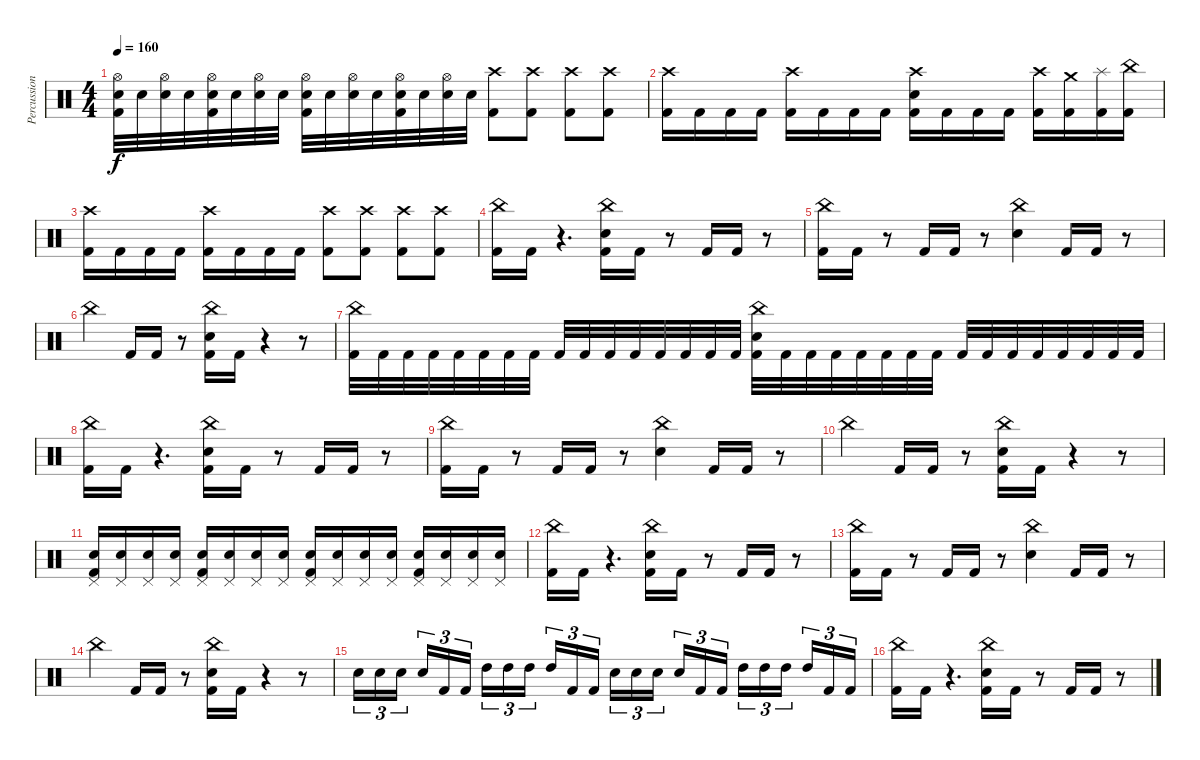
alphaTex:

\track ("Percussion" "Percussion") {instrument percussion}
\staff {score}
\articulation defaults
\ts (4 4)
\tempo 160
\clef neutral
\ks c
("Hi-Hat (open)" "Snare (hit) 2" "Kick (hit) 2").32{dy f} "Snare (hit) 2".32 ("Hi-Hat (open)" "Snare (hit) 2").32 "Snare (hit) 2".32 ("Hi-Hat (open)" "Snare (hit) 2" "Kick (hit) 2").32 "Snare (hit) 2".32 ("Hi-Hat (open)" "Snare (hit) 2").32 "Snare (hit) 2".32 ("Hi-Hat (open)" "Snare (hit) 2" "Kick (hit) 2").32 "Snare (hit) 2".32 ("Hi-Hat (open)" "Snare (hit) 2").32 "Snare (hit) 2".32 ("Hi-Hat (open)" "Snare (hit) 2" "Kick (hit) 2").32 "Snare (hit) 2".32 ("Hi-Hat (open)" "Snare (hit) 2").32 "Snare (hit) 2".32 ("Crash high (hit)" "Kick (hit) 2").8 ("Crash high (hit)" "Kick (hit) 2").8 ("Crash high (hit)" "Kick (hit) 2").8 ("Crash high (hit)" "Kick (hit) 2").8 |
("Kick (hit) 2" "Crash high (hit)").16 "Kick (hit) 2".16 "Kick (hit) 2".16 "Kick (hit) 2".16 ("Kick (hit) 2" "Crash high (hit)").16 "Kick (hit) 2".16 "Kick (hit) 2".16 "Kick (hit) 2".16 ("Kick (hit) 2" "Snare (hit) 2" "Crash high (hit)").16 "Kick (hit) 2".16 "Kick (hit) 2".16 "Kick (hit) 2".16 ("Kick (hit) 2" "Crash high (hit)").16 ("Kick (hit) 2" "Crash medium (hit)").16 ("Kick (hit) 2" "Splash (hit)").16 ("Kick (hit) 2" "China (hit)").16 |
("Kick (hit) 2" "Crash high (hit)").16 "Kick (hit) 2".16 "Kick (hit) 2".16 "Kick (hit) 2".16 ("Kick (hit) 2" "Crash high (hit)").16 "Kick (hit) 2".16 "Kick (hit) 2".16 "Kick (hit) 2".16 ("Crash high (hit)" "Kick (hit) 2").8 ("Crash high (hit)" "Kick (hit) 2").8 ("Crash high (hit)" "Kick (hit) 2").8 ("Crash high (hit)" "Kick (hit) 2").8 |
("China (hit)" "Kick (hit) 2").16 "Kick (hit) 2".16 r.4{d} ("China (hit)" "Snare (hit) 2" "Kick (hit) 2").16 "Kick (hit) 2".16 r.8 "Kick (hit) 2".16 "Kick (hit) 2".16 r.8 |
("China (hit)" "Kick (hit) 2").16 "Kick (hit) 2".16 r.8 "Kick (hit) 2".16 "Kick (hit) 2".16 r.8 ("China (hit)" "Snare (hit) 2").4 "Kick (hit) 2".16 "Kick (hit) 2".16 r.8 |
"China (hit)".4 "Kick (hit) 2".16 "Kick (hit) 2".16 r.8 ("China (hit)" "Snare (hit) 2" "Kick (hit) 2").16 "Kick (hit) 2".16 r.4 r.8 |
("China (hit)" "Kick (hit) 2").32 "Kick (hit) 2".32 "Kick (hit) 2".32 "Kick (hit) 2".32 "Kick (hit) 2".32 "Kick (hit) 2".32 "Kick (hit) 2".32 "Kick (hit) 2".32 "Kick (hit) 2".32 "Kick (hit) 2".32 "Kick (hit) 2".32 "Kick (hit) 2".32 "Kick (hit) 2".32 "Kick (hit) 2".32 "Kick (hit) 2".32 "Kick (hit) 2".32 ("China (hit)" "Snare (hit) 2" "Kick (hit) 2").32 "Kick (hit) 2".32 "Kick (hit) 2".32 "Kick (hit) 2".32 "Kick (hit) 2".32 "Kick (hit) 2".32 "Kick (hit) 2".32 "Kick (hit) 2".32 "Kick (hit) 2".32 "Kick (hit) 2".32 "Kick (hit) 2".32 "Kick (hit) 2".32 "Kick (hit) 2".32 "Kick (hit) 2".32 "Kick (hit) 2".32 "Kick (hit) 2".32 |
("China (hit)" "Kick (hit) 2").16 "Kick (hit) 2".16 r.4{d} ("China (hit)" "Snare (hit) 2" "Kick (hit) 2").16 "Kick (hit) 2".16 r.8 "Kick (hit) 2".16 "Kick (hit) 2".16 r.8 |
("China (hit)" "Kick (hit) 2").16 "Kick (hit) 2".16 r.8 "Kick (hit) 2".16 "Kick (hit) 2".16 r.8 ("China (hit)" "Snare (hit) 2").4 "Kick (hit) 2".16 "Kick (hit) 2".16 r.8 |
"China (hit)".4 "Kick (hit) 2".16 "Kick (hit) 2".16 r.8 ("China (hit)" "Snare (hit) 2" "Kick (hit) 2").16 "Kick (hit) 2".16 r.4 r.8 |
("Pedal Hi-Hat (hit)" "Snare (hit) 2" "Kick (hit) 2").16 ("Pedal Hi-Hat (hit)" "Snare (hit) 2").16 ("Pedal Hi-Hat (hit)" "Snare (hit) 2").16 ("Pedal Hi-Hat (hit)" "Snare (hit) 2").16 ("Pedal Hi-Hat (hit)" "Snare (hit) 2" "Kick (hit) 2").16 ("Pedal Hi-Hat (hit)" "Snare (hit) 2").16 ("Pedal Hi-Hat (hit)" "Snare (hit) 2").16 ("Pedal Hi-Hat (hit)" "Snare (hit) 2").16 ("Pedal Hi-Hat (hit)" "Snare (hit) 2" "Kick (hit) 2").16 ("Pedal Hi-Hat (hit)" "Snare (hit) 2").16 ("Pedal Hi-Hat (hit)" "Snare (hit) 2").16 ("Pedal Hi-Hat (hit)" "Snare (hit) 2").16 ("Pedal Hi-Hat (hit)" "Snare (hit) 2" "Kick (hit) 2").16 ("Pedal Hi-Hat (hit)" "Snare (hit) 2").16 ("Pedal Hi-Hat (hit)" "Snare (hit) 2").16 ("Pedal Hi-Hat (hit)" "Snare (hit) 2").16 |
("China (hit)" "Kick (hit) 2").16 "Kick (hit) 2".16 r.4{d} ("China (hit)" "Snare (hit) 2" "Kick (hit) 2").16 "Kick (hit) 2".16 r.8 "Kick (hit) 2".16 "Kick (hit) 2".16 r.8 |
("China (hit)" "Kick (hit) 2").16 "Kick (hit) 2".16 r.8 "Kick (hit) 2".16 "Kick (hit) 2".16 r.8 ("China (hit)" "Snare (hit) 2").4 "Kick (hit) 2".16 "Kick (hit) 2".16 r.8 |
"China (hit)".4 "Kick (hit) 2".16 "Kick (hit) 2".16 r.8 ("China (hit)" "Snare (hit) 2" "Kick (hit) 2").16 "Kick (hit) 2".16 r.4 r.8 |
"Snare (hit) 2".16{tu (3 2)} "Snare (hit) 2".16{tu (3 2)} "Snare (hit) 2".16{tu (3 2) beam splitsecondary} "Snare (hit) 2".16{tu (3 2)} "Kick (hit) 2".16{tu (3 2)} "Kick (hit) 2".16{tu (3 2)} "High Tom (hit)".16{tu (3 2)} "High Tom (hit)".16{tu (3 2)} "High Tom (hit)".16{tu (3 2) beam splitsecondary} "High Tom (hit)".16{tu (3 2)} "Kick (hit) 2".16{tu (3 2)} "Kick (hit) 2".16{tu (3 2)} "Snare (hit) 2".16{tu (3 2)} "Snare (hit) 2".16{tu (3 2)} "Snare (hit) 2".16{tu (3 2) beam splitsecondary} "Snare (hit) 2".16{tu (3 2)} "Kick (hit) 2".16{tu (3 2)} "Kick (hit) 2".16{tu (3 2)} "High Tom (hit)".16{tu (3 2)} "High Tom (hit)".16{tu (3 2)} "High Tom (hit)".16{tu (3 2) beam splitsecondary} "High Tom (hit)".16{tu (3 2)} "Kick (hit) 2".16{tu (3 2)} "Kick (hit) 2".16{tu (3 2)} |
("China (hit)" "Kick (hit) 2").16 "Kick (hit) 2".16 r.4{d} ("China (hit)" "Snare (hit) 2" "Kick (hit) 2").16 "Kick (hit) 2".16 r.8 "Kick (hit) 2".16 "Kick (hit) 2".16 r.8
